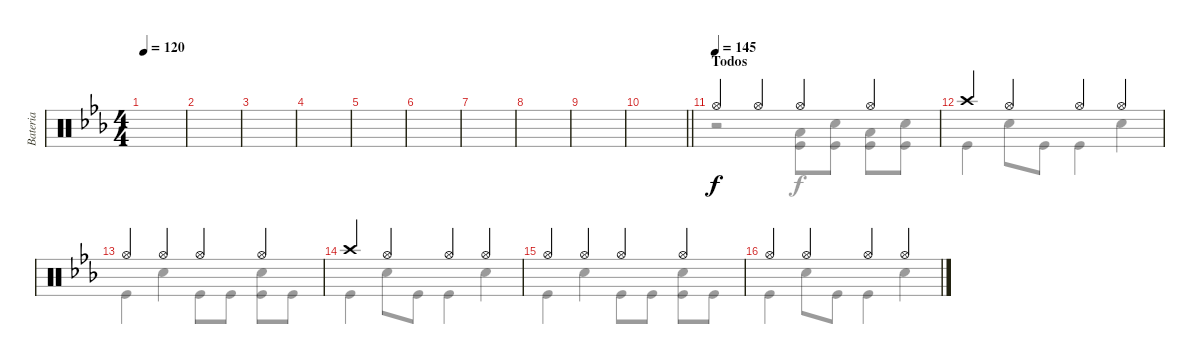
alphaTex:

\track ("Bateria" "Bateria") {instrument percussion}
\staff {score}
\articulation defaults
\voice
\ts (4 4)
\tempo 120
\clef neutral
\ks cminor
|
|
|
|
|
|
|
|
|
\barLineRight lightlight
|
\section ("" "Todos")
\tempo (145)
"Hi-Hat (open)".4 "Hi-Hat (open)".4 "Hi-Hat (open)".4 "Hi-Hat (open)".4 |
"Crash high (hit)".4 "Hi-Hat (open)".4 "Hi-Hat (open)".4 "Hi-Hat (open)".4 |
"Hi-Hat (open)".4 "Hi-Hat (open)".4 "Hi-Hat (open)".4 "Hi-Hat (open)".4 |
"Crash high (hit)".4 "Hi-Hat (open)".4 "Hi-Hat (open)".4 "Hi-Hat (open)".4 |
"Hi-Hat (open)".4 "Hi-Hat (open)".4 "Hi-Hat (open)".4 "Hi-Hat (open)".4 |
"Hi-Hat (open)".4 "Hi-Hat (open)".4 "Hi-Hat (open)".4 "Hi-Hat (open)".4
\voice
\clef neutral
\ottava regular
\simile none
\ks cminor
|
|
|
|
|
|
|
|
|
\barLineRight lightlight
|
r.2 ("Low Floor Tom (hit)" "Kick (hit)").8 ("Snare (hit) 2" "Kick (hit)").8 ("Low Floor Tom (hit)" "Kick (hit)").8 ("Snare (hit) 2" "Kick (hit)").8 |
"Kick (hit)".4 "Snare (hit) 2".8 "Kick (hit)".8 "Kick (hit)".4 "Snare (hit) 2".4 |
"Kick (hit)".4 "Snare (hit) 2".4 "Kick (hit)".8 "Kick (hit)".8 ("Snare (hit) 2" "Kick (hit)").8 "Kick (hit)".8 |
"Kick (hit)".4 "Snare (hit) 2".8 "Kick (hit)".8 "Kick (hit)".4 "Snare (hit) 2".4 |
"Kick (hit)".4 "Snare (hit) 2".4 "Kick (hit)".8 "Kick (hit)".8 ("Snare (hit) 2" "Kick (hit)").8 "Kick (hit)".8 |
"Kick (hit)".4 "Snare (hit) 2".8 "Kick (hit)".8 "Kick (hit)".4 "Snare (hit) 2".4
